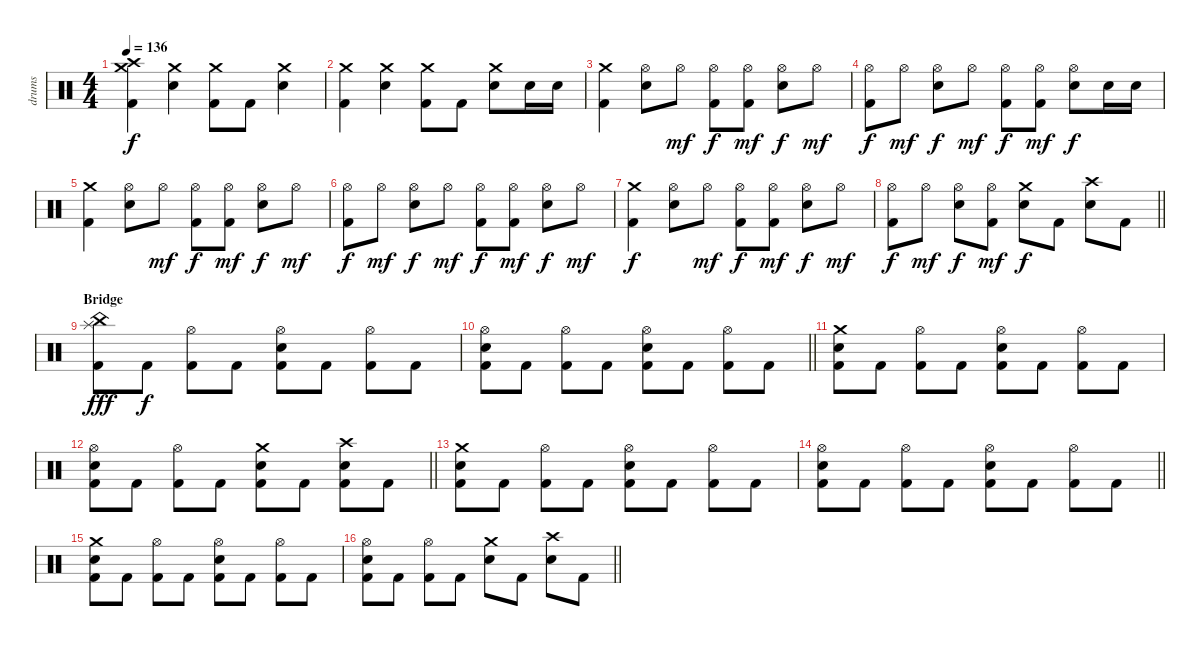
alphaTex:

\track ("drums" "drums") {instrument percussion}
\staff {score}
\articulation defaults
\ts (4 4)
\tempo 136
\clef neutral
\ks c
("Crash medium (hit)" "Crash high (hit)" "Kick (hit) 2").4{dy f} ("Crash medium (hit)" "Electric Snare (hit)").4 ("Crash medium (hit)" "Kick (hit) 2").8 "Kick (hit) 2".8 ("Crash medium (hit)" "Electric Snare (hit)").4 |
("Crash medium (hit)" "Kick (hit) 2").4 ("Crash medium (hit)" "Electric Snare (hit)").4 ("Crash medium (hit)" "Kick (hit) 2").8 "Kick (hit) 2".8 ("Crash medium (hit)" "Electric Snare (hit)").8 "Electric Snare (hit)".16 "Electric Snare (hit)".16 |
("Crash medium (hit)" "Kick (hit) 2").4 ("Hi-Hat (open)" "Electric Snare (hit)").8 "Hi-Hat (open)".8{dy mf} ("Hi-Hat (open)" "Kick (hit) 2").8{dy f} ("Hi-Hat (open)" "Kick (hit) 2").8{dy mf} ("Hi-Hat (open)" "Electric Snare (hit)").8{dy f} "Hi-Hat (open)".8{dy mf} |
("Hi-Hat (open)" "Kick (hit) 2").8{dy f} "Hi-Hat (open)".8{dy mf} ("Hi-Hat (open)" "Electric Snare (hit)").8{dy f} "Hi-Hat (open)".8{dy mf} ("Hi-Hat (open)" "Kick (hit) 2").8{dy f} ("Hi-Hat (open)" "Kick (hit) 2").8{dy mf} ("Hi-Hat (open)" "Electric Snare (hit)").8{dy f} "Electric Snare (hit)".16 "Electric Snare (hit)".16 |
("Crash medium (hit)" "Kick (hit) 2").4 ("Hi-Hat (open)" "Electric Snare (hit)").8 "Hi-Hat (open)".8{dy mf} ("Hi-Hat (open)" "Kick (hit) 2").8{dy f} ("Hi-Hat (open)" "Kick (hit) 2").8{dy mf} ("Hi-Hat (open)" "Electric Snare (hit)").8{dy f} "Hi-Hat (open)".8{dy mf} |
("Hi-Hat (open)" "Kick (hit) 2").8{dy f} "Hi-Hat (open)".8{dy mf} ("Hi-Hat (open)" "Electric Snare (hit)").8{dy f} "Hi-Hat (open)".8{dy mf} ("Hi-Hat (open)" "Kick (hit) 2").8{dy f} ("Hi-Hat (open)" "Kick (hit) 2").8{dy mf} ("Hi-Hat (open)" "Electric Snare (hit)").8{dy f} "Hi-Hat (open)".8{dy mf} |
("Crash medium (hit)" "Kick (hit) 2").4{dy f} ("Hi-Hat (open)" "Electric Snare (hit)").8 "Hi-Hat (open)".8{dy mf} ("Hi-Hat (open)" "Kick (hit) 2").8{dy f} ("Hi-Hat (open)" "Kick (hit) 2").8{dy mf} ("Hi-Hat (open)" "Electric Snare (hit)").8{dy f} "Hi-Hat (open)".8{dy mf} |
\barLineRight lightlight
("Hi-Hat (open)" "Kick (hit) 2").8{dy f} "Hi-Hat (open)".8{dy mf} ("Hi-Hat (open)" "Electric Snare (hit)").8{dy f} ("Hi-Hat (open)" "Kick (hit) 2").8{dy mf} ("Crash medium (hit)" "Electric Snare (hit)").8{dy f} "Kick (hit) 2".8 ("Crash high (hit)" "Electric Snare (hit)").8 "Kick (hit) 2".8 |
\section ("" "Bridge")
("China (hit)" "Splash (hit)" "Kick (hit) 2").8{dy fff} "Kick (hit) 2".8{dy f} ("Hi-Hat (open)" "Kick (hit) 2").8 "Kick (hit) 2".8 ("Hi-Hat (open)" "Electric Snare (hit)" "Kick (hit) 2").8 "Kick (hit) 2".8 ("Hi-Hat (open)" "Kick (hit) 2").8 "Kick (hit) 2".8 |
\barLineRight lightlight
("Hi-Hat (open)" "Electric Snare (hit)" "Kick (hit) 2").8 "Kick (hit) 2".8 ("Hi-Hat (open)" "Kick (hit) 2").8 "Kick (hit) 2".8 ("Hi-Hat (open)" "Electric Snare (hit)" "Kick (hit) 2").8 "Kick (hit) 2".8 ("Hi-Hat (open)" "Kick (hit) 2").8 "Kick (hit) 2".8 |
("Crash medium (hit)" "Electric Snare (hit)" "Kick (hit) 2").8 "Kick (hit) 2".8 ("Hi-Hat (open)" "Kick (hit) 2").8 "Kick (hit) 2".8 ("Hi-Hat (open)" "Electric Snare (hit)" "Kick (hit) 2").8 "Kick (hit) 2".8 ("Hi-Hat (open)" "Kick (hit) 2").8 "Kick (hit) 2".8 |
\barLineRight lightlight
("Hi-Hat (open)" "Electric Snare (hit)" "Kick (hit) 2").8 "Kick (hit) 2".8 ("Hi-Hat (open)" "Kick (hit) 2").8 "Kick (hit) 2".8 ("Crash medium (hit)" "Electric Snare (hit)" "Kick (hit) 2").8 "Kick (hit) 2".8 ("Crash high (hit)" "Electric Snare (hit)" "Kick (hit) 2").8 "Kick (hit) 2".8 |
("Crash medium (hit)" "Electric Snare (hit)" "Kick (hit) 2").8 "Kick (hit) 2".8 ("Hi-Hat (open)" "Kick (hit) 2").8 "Kick (hit) 2".8 ("Hi-Hat (open)" "Electric Snare (hit)" "Kick (hit) 2").8 "Kick (hit) 2".8 ("Hi-Hat (open)" "Kick (hit) 2").8 "Kick (hit) 2".8 |
\barLineRight lightlight
("Hi-Hat (open)" "Electric Snare (hit)" "Kick (hit) 2").8 "Kick (hit) 2".8 ("Hi-Hat (open)" "Kick (hit) 2").8 "Kick (hit) 2".8 ("Hi-Hat (open)" "Electric Snare (hit)" "Kick (hit) 2").8 "Kick (hit) 2".8 ("Hi-Hat (open)" "Kick (hit) 2").8 "Kick (hit) 2".8 |
("Crash medium (hit)" "Electric Snare (hit)" "Kick (hit) 2").8 "Kick (hit) 2".8 ("Hi-Hat (open)" "Kick (hit) 2").8 "Kick (hit) 2".8 ("Hi-Hat (open)" "Electric Snare (hit)" "Kick (hit) 2").8 "Kick (hit) 2".8 ("Hi-Hat (open)" "Kick (hit) 2").8 "Kick (hit) 2".8 |
\barLineRight lightlight
("Hi-Hat (open)" "Electric Snare (hit)" "Kick (hit) 2").8 "Kick (hit) 2".8 ("Hi-Hat (open)" "Kick (hit) 2").8 "Kick (hit) 2".8 ("Crash medium (hit)" "Electric Snare (hit)").8 "Kick (hit) 2".8 ("Crash high (hit)" "Electric Snare (hit)").8 "Kick (hit) 2".8
